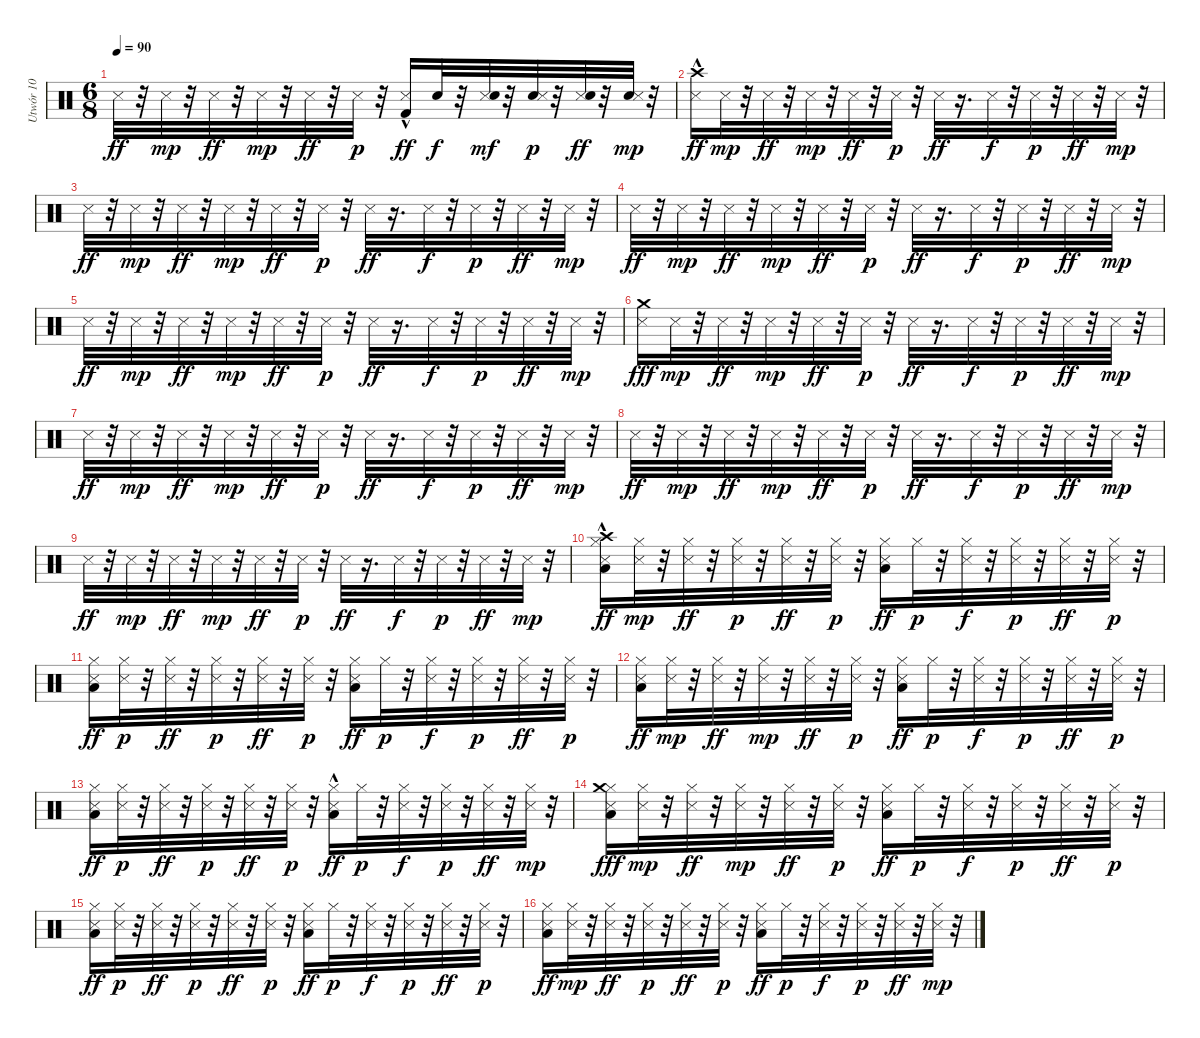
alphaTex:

\track ("Utwór 10" "Utwór 10") {instrument percussion}
\staff {score}
\articulation defaults
\ts (6 8)
\tempo 90
\clef neutral
\ks c "Snare (side stick) 3".32{dy ff}
r.32 "Snare (side stick) 3".32{dy mp} r.32 "Snare (side stick) 3".32{dy ff} r.32 "Snare (side stick) 3".32{dy mp} r.32 "Snare (side stick) 3".32{dy ff} r.32 "Snare (side stick) 3".32{dy p} r.32 ("Snare (side stick) 3" "Kick (hit) 2"{hac}).16{dy ff} "Snare (hit) 2".32{dy f} r.32 ("Snare (side stick) 3" "Snare (hit) 2").32{dy mf} r.32 ("Snare (hit) 2" "Snare (side stick) 3").32{dy p} r.32 ("Snare (side stick) 3" "Snare (hit) 2").32{dy ff} r.32 ("Snare (hit) 2" "Snare (side stick) 3").32{dy mp} r.32 |
("Snare (side stick) 3" "Crash high (hit)"{hac}).16{dy ff} "Snare (side stick) 3".32{dy mp} r.32 "Snare (side stick) 3".32{dy ff} r.32 "Snare (side stick) 3".32{dy mp} r.32 "Snare (side stick) 3".32{dy ff} r.32 "Snare (side stick) 3".32{dy p} r.32 "Snare (side stick) 3".32{dy ff} r.16{d} "Snare (side stick) 3".32{dy f} r.32 "Snare (side stick) 3".32{dy p} r.32 "Snare (side stick) 3".32{dy ff} r.32 "Snare (side stick) 3".32{dy mp} r.32 |
"Snare (side stick) 3".32{dy ff} r.32 "Snare (side stick) 3".32{dy mp} r.32 "Snare (side stick) 3".32{dy ff} r.32 "Snare (side stick) 3".32{dy mp} r.32 "Snare (side stick) 3".32{dy ff} r.32 "Snare (side stick) 3".32{dy p} r.32 "Snare (side stick) 3".32{dy ff} r.16{d} "Snare (side stick) 3".32{dy f} r.32 "Snare (side stick) 3".32{dy p} r.32 "Snare (side stick) 3".32{dy ff} r.32 "Snare (side stick) 3".32{dy mp} r.32 |
"Snare (side stick) 3".32{dy ff} r.32 "Snare (side stick) 3".32{dy mp} r.32 "Snare (side stick) 3".32{dy ff} r.32 "Snare (side stick) 3".32{dy mp} r.32 "Snare (side stick) 3".32{dy ff} r.32 "Snare (side stick) 3".32{dy p} r.32 "Snare (side stick) 3".32{dy ff} r.16{d} "Snare (side stick) 3".32{dy f} r.32 "Snare (side stick) 3".32{dy p} r.32 "Snare (side stick) 3".32{dy ff} r.32 "Snare (side stick) 3".32{dy mp} r.32 |
"Snare (side stick) 3".32{dy ff} r.32 "Snare (side stick) 3".32{dy mp} r.32 "Snare (side stick) 3".32{dy ff} r.32 "Snare (side stick) 3".32{dy mp} r.32 "Snare (side stick) 3".32{dy ff} r.32 "Snare (side stick) 3".32{dy p} r.32 "Snare (side stick) 3".32{dy ff} r.16{d} "Snare (side stick) 3".32{dy f} r.32 "Snare (side stick) 3".32{dy p} r.32 "Snare (side stick) 3".32{dy ff} r.32 "Snare (side stick) 3".32{dy mp} r.32 |
("Snare (side stick) 3" "Crash medium (hit)").16{dy fff} "Snare (side stick) 3".32{dy mp} r.32 "Snare (side stick) 3".32{dy ff} r.32 "Snare (side stick) 3".32{dy mp} r.32 "Snare (side stick) 3".32{dy ff} r.32 "Snare (side stick) 3".32{dy p} r.32 "Snare (side stick) 3".32{dy ff} r.16{d} "Snare (side stick) 3".32{dy f} r.32 "Snare (side stick) 3".32{dy p} r.32 "Snare (side stick) 3".32{dy ff} r.32 "Snare (side stick) 3".32{dy mp} r.32 |
"Snare (side stick) 3".32{dy ff} r.32 "Snare (side stick) 3".32{dy mp} r.32 "Snare (side stick) 3".32{dy ff} r.32 "Snare (side stick) 3".32{dy mp} r.32 "Snare (side stick) 3".32{dy ff} r.32 "Snare (side stick) 3".32{dy p} r.32 "Snare (side stick) 3".32{dy ff} r.16{d} "Snare (side stick) 3".32{dy f} r.32 "Snare (side stick) 3".32{dy p} r.32 "Snare (side stick) 3".32{dy ff} r.32 "Snare (side stick) 3".32{dy mp} r.32 |
"Snare (side stick) 3".32{dy ff} r.32 "Snare (side stick) 3".32{dy mp} r.32 "Snare (side stick) 3".32{dy ff} r.32 "Snare (side stick) 3".32{dy mp} r.32 "Snare (side stick) 3".32{dy ff} r.32 "Snare (side stick) 3".32{dy p} r.32 "Snare (side stick) 3".32{dy ff} r.16{d} "Snare (side stick) 3".32{dy f} r.32 "Snare (side stick) 3".32{dy p} r.32 "Snare (side stick) 3".32{dy ff} r.32 "Snare (side stick) 3".32{dy mp} r.32 |
"Snare (side stick) 3".32{dy ff} r.32 "Snare (side stick) 3".32{dy mp} r.32 "Snare (side stick) 3".32{dy ff} r.32 "Snare (side stick) 3".32{dy mp} r.32 "Snare (side stick) 3".32{dy ff} r.32 "Snare (side stick) 3".32{dy p} r.32 "Snare (side stick) 3".32{dy ff} r.16{d} "Snare (side stick) 3".32{dy f} r.32 "Snare (side stick) 3".32{dy p} r.32 "Snare (side stick) 3".32{dy ff} r.32 "Snare (side stick) 3".32{dy mp} r.32 |
("Hi-Hat (closed)" "Low Floor Tom (hit)" "Snare (side stick) 3" "Crash high (hit)"{hac}).16{dy ff} ("Hi-Hat (closed)" "Snare (side stick) 3").32{dy mp} r.32 ("Snare (side stick) 3" "Hi-Hat (closed)").32{dy ff} r.32 ("Snare (side stick) 3" "Hi-Hat (closed)").32{dy p} r.32 ("Snare (side stick) 3" "Hi-Hat (closed)").32{dy ff} r.32 ("Hi-Hat (closed)" "Snare (side stick) 3").32{dy p} r.32 ("Low Floor Tom (hit)" "Snare (side stick) 3" "Hi-Hat (closed)").16{dy ff} "Hi-Hat (closed)".32{dy p} r.32 ("Snare (side stick) 3" "Hi-Hat (closed)").32{dy f} r.32 ("Snare (side stick) 3" "Hi-Hat (closed)").32{dy p} r.32 ("Snare (side stick) 3" "Hi-Hat (closed)").32{dy ff} r.32 ("Snare (side stick) 3" "Hi-Hat (closed)").32{dy p} r.32 |
("Snare (side stick) 3" "Hi-Hat (closed)" "Low Floor Tom (hit)").16{dy ff} ("Snare (side stick) 3" "Hi-Hat (closed)").32{dy p} r.32 ("Snare (side stick) 3" "Hi-Hat (closed)").32{dy ff} r.32 ("Snare (side stick) 3" "Hi-Hat (closed)").32{dy p} r.32 ("Hi-Hat (closed)" "Snare (side stick) 3").32{dy ff} r.32 ("Hi-Hat (closed)" "Snare (side stick) 3").32{dy p} r.32 ("Hi-Hat (closed)" "Low Floor Tom (hit)" "Snare (side stick) 3").16{dy ff} "Hi-Hat (closed)".32{dy p} r.32 ("Snare (side stick) 3" "Hi-Hat (closed)").32{dy f} r.32 ("Snare (side stick) 3" "Hi-Hat (closed)").32{dy p} r.32 ("Snare (side stick) 3" "Hi-Hat (closed)").32{dy ff} r.32 ("Snare (side stick) 3" "Hi-Hat (closed)").32{dy p} r.32 |
("Snare (side stick) 3" "Low Floor Tom (hit)" "Hi-Hat (closed)").16{dy ff} ("Hi-Hat (closed)" "Snare (side stick) 3").32{dy mp} r.32 ("Hi-Hat (closed)" "Snare (side stick) 3").32{dy ff} r.32 ("Hi-Hat (closed)" "Snare (side stick) 3").32{dy mp} r.32 ("Snare (side stick) 3" "Hi-Hat (closed)").32{dy ff} r.32 ("Hi-Hat (closed)" "Snare (side stick) 3").32{dy p} r.32 ("Low Floor Tom (hit)" "Snare (side stick) 3" "Hi-Hat (closed)").16{dy ff} "Hi-Hat (closed)".32{dy p} r.32 ("Snare (side stick) 3" "Hi-Hat (closed)").32{dy f} r.32 ("Snare (side stick) 3" "Hi-Hat (closed)").32{dy p} r.32 ("Hi-Hat (closed)" "Snare (side stick) 3").32{dy ff} r.32 ("Snare (side stick) 3" "Hi-Hat (closed)").32{dy p} r.32 |
("Snare (side stick) 3" "Low Floor Tom (hit)" "Hi-Hat (closed)").16{dy ff} ("Snare (side stick) 3" "Hi-Hat (closed)").32{dy p} r.32 ("Snare (side stick) 3" "Hi-Hat (closed)").32{dy ff} r.32 ("Snare (side stick) 3" "Hi-Hat (closed)").32{dy p} r.32 ("Hi-Hat (closed)" "Snare (side stick) 3").32{dy ff} r.32 ("Hi-Hat (closed)" "Snare (side stick) 3").32{dy p} r.32 ("Snare (side stick) 3" "Hi-Hat (closed)" "Low Floor Tom (hit)"{hac}).16{dy ff} "Hi-Hat (closed)".32{dy p} r.32 ("Snare (side stick) 3" "Hi-Hat (closed)").32{dy f} r.32 ("Snare (side stick) 3" "Hi-Hat (closed)").32{dy p} r.32 ("Hi-Hat (closed)" "Snare (side stick) 3").32{dy ff} r.32 ("Hi-Hat (closed)" "Snare (side stick) 3").32{dy mp} r.32 |
("Snare (side stick) 3" "Low Floor Tom (hit)" "Hi-Hat (closed)" "Crash medium (hit)").16{dy fff} ("Hi-Hat (closed)" "Snare (side stick) 3").32{dy mp} r.32 ("Snare (side stick) 3" "Hi-Hat (closed)").32{dy ff} r.32 ("Hi-Hat (closed)" "Snare (side stick) 3").32{dy mp} r.32 ("Snare (side stick) 3" "Hi-Hat (closed)").32{dy ff} r.32 ("Snare (side stick) 3" "Hi-Hat (closed)").32{dy p} r.32 ("Hi-Hat (closed)" "Snare (side stick) 3" "Low Floor Tom (hit)").16{dy ff} "Hi-Hat (closed)".32{dy p} r.32 ("Hi-Hat (closed)" "Snare (side stick) 3").32{dy f} r.32 ("Snare (side stick) 3" "Hi-Hat (closed)").32{dy p} r.32 ("Snare (side stick) 3" "Hi-Hat (closed)").32{dy ff} r.32 ("Snare (side stick) 3" "Hi-Hat (closed)").32{dy p} r.32 |
("Low Floor Tom (hit)" "Hi-Hat (closed)" "Snare (side stick) 3").16{dy ff} ("Snare (side stick) 3" "Hi-Hat (closed)").32{dy p} r.32 ("Snare (side stick) 3" "Hi-Hat (closed)").32{dy ff} r.32 ("Snare (side stick) 3" "Hi-Hat (closed)").32{dy p} r.32 ("Snare (side stick) 3" "Hi-Hat (closed)").32{dy ff} r.32 ("Hi-Hat (closed)" "Snare (side stick) 3").32{dy p} r.32 ("Hi-Hat (closed)" "Low Floor Tom (hit)" "Snare (side stick) 3").16{dy ff} "Hi-Hat (closed)".32{dy p} r.32 ("Hi-Hat (closed)" "Snare (side stick) 3").32{dy f} r.32 ("Hi-Hat (closed)" "Snare (side stick) 3").32{dy p} r.32 ("Snare (side stick) 3" "Hi-Hat (closed)").32{dy ff} r.32 ("Snare (side stick) 3" "Hi-Hat (closed)").32{dy p} r.32 |
("Snare (side stick) 3" "Low Floor Tom (hit)" "Hi-Hat (closed)").16{dy ff} ("Hi-Hat (closed)" "Snare (side stick) 3").32{dy mp} r.32 ("Snare (side stick) 3" "Hi-Hat (closed)").32{dy ff} r.32 ("Snare (side stick) 3" "Hi-Hat (closed)").32{dy p} r.32 ("Snare (side stick) 3" "Hi-Hat (closed)").32{dy ff} r.32 ("Snare (side stick) 3" "Hi-Hat (closed)").32{dy p} r.32 ("Snare (side stick) 3" "Low Floor Tom (hit)" "Hi-Hat (closed)").16{dy ff} "Hi-Hat (closed)".32{dy p} r.32 ("Hi-Hat (closed)" "Snare (side stick) 3").32{dy f} r.32 ("Hi-Hat (closed)" "Snare (side stick) 3").32{dy p} r.32 ("Hi-Hat (closed)" "Snare (side stick) 3").32{dy ff} r.32 ("Hi-Hat (closed)" "Snare (side stick) 3").32{dy mp} r.32
